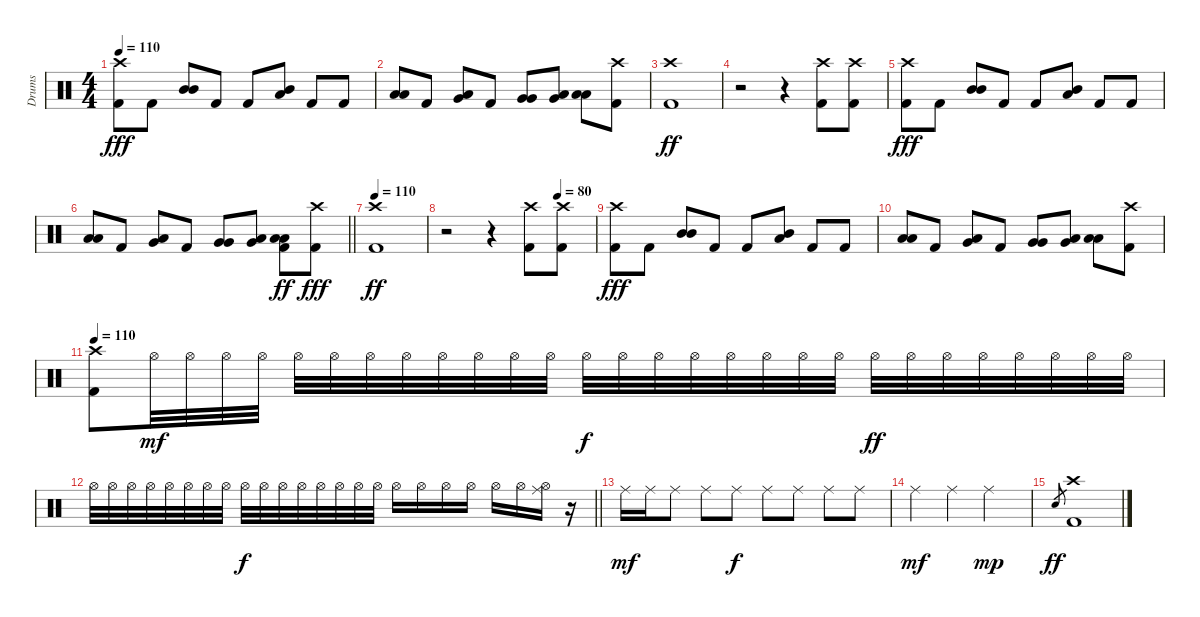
\track ("Drums" "Drums") {instrument percussion}
\staff {score}
\articulation defaults
\ts (4 4)
\tempo 110
\clef neutral
\ks c
("Crash high (hit)" "Kick (hit) 2").8{dy fff} "Kick (hit) 2".8 ("Mid Tom (hit)" "Mid Tom (hit)").8 "Kick (hit) 2".8 "Kick (hit) 2".8 ("Mid Tom (hit)" "Low Tom (hit)").8 "Kick (hit) 2".8 "Kick (hit) 2".8 |
("Low Tom (hit)" "Low Tom (hit)").8 "Kick (hit) 2".8 ("Low Tom (hit)" "Very Low Tom (hit)").8 "Kick (hit) 2".8 ("Very Low Tom (hit)" "Very Low Tom (hit)").8 ("Low Floor Tom (hit)" "Very Low Tom (hit)").8 ("Low Floor Tom (hit)" "Low Floor Tom (hit)").8 ("Crash high (hit)" "Kick (hit) 2").8 |
("Crash high (hit)" "Kick (hit) 2").1{dy ff} |
r.2 r.4 ("Crash high (hit)" "Kick (hit) 2").8 ("Crash high (hit)" "Kick (hit) 2").8 |
("Crash high (hit)" "Kick (hit) 2").8{dy fff} "Kick (hit) 2".8 ("Mid Tom (hit)" "Mid Tom (hit)").8 "Kick (hit) 2".8 "Kick (hit) 2".8 ("Mid Tom (hit)" "Low Tom (hit)").8 "Kick (hit) 2".8 "Kick (hit) 2".8 |
\barLineRight lightlight
("Low Tom (hit)" "Low Tom (hit)").8 "Kick (hit) 2".8 ("Low Tom (hit)" "Very Low Tom (hit)").8 "Kick (hit) 2".8 ("Very Low Tom (hit)" "Very Low Tom (hit)").8 ("Low Floor Tom (hit)" "Very Low Tom (hit)").8 ("Low Floor Tom (hit)" "Low Floor Tom (hit)" "Kick (hit) 2").8{dy ff} ("Crash high (hit)" "Kick (hit) 2").8{dy fff} |
\tempo 110
("Crash high (hit)" "Kick (hit) 2").1{dy ff} |
\tempo (80 0.75)
r.2 r.4 ("Crash high (hit)" "Kick (hit) 2").8 ("Crash high (hit)" "Kick (hit) 2").8 |
("Crash high (hit)" "Kick (hit) 2").8{dy fff} "Kick (hit) 2".8 ("Mid Tom (hit)" "Mid Tom (hit)").8 "Kick (hit) 2".8 "Kick (hit) 2".8 ("Mid Tom (hit)" "Low Tom (hit)").8 "Kick (hit) 2".8 "Kick (hit) 2".8 |
("Low Tom (hit)" "Low Tom (hit)").8 "Kick (hit) 2".8 ("Low Tom (hit)" "Very Low Tom (hit)").8 "Kick (hit) 2".8 ("Very Low Tom (hit)" "Very Low Tom (hit)").8 ("Low Floor Tom (hit)" "Very Low Tom (hit)").8 ("Low Floor Tom (hit)" "Low Floor Tom (hit)").8 ("Crash high (hit)" "Kick (hit) 2").8 |
\tempo 110
("Crash high (hit)" "Kick (hit) 2").8 "Hi-Hat (open)".32{dy mf} "Hi-Hat (open)".32 "Hi-Hat (open)".32 "Hi-Hat (open)".32 "Hi-Hat (open)".32 "Hi-Hat (open)".32 "Hi-Hat (open)".32 "Hi-Hat (open)".32 "Hi-Hat (open)".32 "Hi-Hat (open)".32 "Hi-Hat (open)".32 "Hi-Hat (open)".32 "Hi-Hat (open)".32{dy f} "Hi-Hat (open)".32 "Hi-Hat (open)".32 "Hi-Hat (open)".32 "Hi-Hat (open)".32 "Hi-Hat (open)".32 "Hi-Hat (open)".32 "Hi-Hat (open)".32 "Hi-Hat (open)".32{dy ff} "Hi-Hat (open)".32 "Hi-Hat (open)".32 "Hi-Hat (open)".32 "Hi-Hat (open)".32 "Hi-Hat (open)".32 "Hi-Hat (open)".32 "Hi-Hat (open)".32 |
\barLineRight lightlight "Hi-Hat (open)".32 "Hi-Hat (open)".32 "Hi-Hat (open)".32 "Hi-Hat (open)".32 "Hi-Hat (open)".32 "Hi-Hat (open)".32 "Hi-Hat (open)".32 "Hi-Hat (open)".32 "Hi-Hat (open)".32{dy f} "Hi-Hat (open)".32 "Hi-Hat (open)".32 "Hi-Hat (open)".32 "Hi-Hat (open)".32 "Hi-Hat (open)".32 "Hi-Hat (open)".32 "Hi-Hat (open)".32 "Hi-Hat (open)".16 "Hi-Hat (open)".16 "Hi-Hat (open)".16 "Hi-Hat (open)".16 "Hi-Hat (open)".16 "Hi-Hat (open)".16
("Hi-Hat (open)" "Ride (middle)").16 r.16 |
"Ride (middle)".16{dy mf} "Ride (middle)".16 "Ride (middle)".8 "Ride (middle)".8 "Ride (middle)".8{dy f} "Ride (middle)".8 "Ride (middle)".8 "Ride (middle)".8 "Ride (middle)".8 |
"Ride (middle)".4{dy mf} "Ride (middle)".4 "Ride (middle)".2{dy mp} |
"Snare (hit) 2".8{gr dy ff} ("Crash high (hit)" "Kick (hit) 2").1
